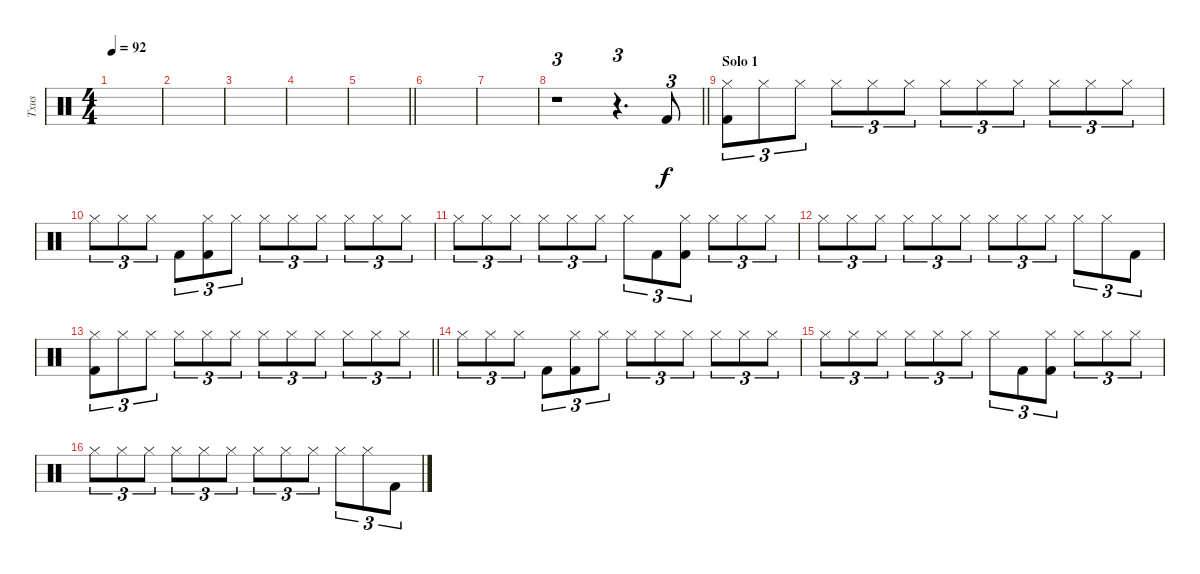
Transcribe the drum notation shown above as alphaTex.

\track ("Txus" "Txus") {instrument percussion}
\staff {score}
\articulation defaults
\ts (4 4)
\tempo 92
\clef neutral
\ks c
|
|
|
|
\barLineRight lightlight
|
|
|
\barLineRight lightlight
r.1{tu (3 2)} r.4{d tu (3 2)} "Kick (hit) 2".8{tu (3 2)} |
\section ("" "Solo 1")
("Hi-Hat (closed)" "Kick (hit) 2").8{tu (3 2)} "Hi-Hat (closed)".8{tu (3 2)} "Hi-Hat (closed)".8{tu (3 2)} "Hi-Hat (closed)".8{tu (3 2)} "Hi-Hat (closed)".8{tu (3 2)} "Hi-Hat (closed)".8{tu (3 2)} "Hi-Hat (closed)".8{tu (3 2)} "Hi-Hat (closed)".8{tu (3 2)} "Hi-Hat (closed)".8{tu (3 2)} "Hi-Hat (closed)".8{tu (3 2)} "Hi-Hat (closed)".8{tu (3 2)} "Hi-Hat (closed)".8{tu (3 2)} |
"Hi-Hat (closed)".8{tu (3 2)} "Hi-Hat (closed)".8{tu (3 2)} "Hi-Hat (closed)".8{tu (3 2)} "Kick (hit) 2".8{tu (3 2)} ("Hi-Hat (closed)" "Kick (hit) 2").8{tu (3 2)} "Hi-Hat (closed)".8{tu (3 2)} "Hi-Hat (closed)".8{tu (3 2)} "Hi-Hat (closed)".8{tu (3 2)} "Hi-Hat (closed)".8{tu (3 2)} "Hi-Hat (closed)".8{tu (3 2)} "Hi-Hat (closed)".8{tu (3 2)} "Hi-Hat (closed)".8{tu (3 2)} |
"Hi-Hat (closed)".8{tu (3 2)} "Hi-Hat (closed)".8{tu (3 2)} "Hi-Hat (closed)".8{tu (3 2)} "Hi-Hat (closed)".8{tu (3 2)} "Hi-Hat (closed)".8{tu (3 2)} "Hi-Hat (closed)".8{tu (3 2)} "Hi-Hat (closed)".8{tu (3 2)} "Kick (hit) 2".8{tu (3 2)} ("Hi-Hat (closed)" "Kick (hit) 2").8{tu (3 2)} "Hi-Hat (closed)".8{tu (3 2)} "Hi-Hat (closed)".8{tu (3 2)} "Hi-Hat (closed)".8{tu (3 2)} |
"Hi-Hat (closed)".8{tu (3 2)} "Hi-Hat (closed)".8{tu (3 2)} "Hi-Hat (closed)".8{tu (3 2)} "Hi-Hat (closed)".8{tu (3 2)} "Hi-Hat (closed)".8{tu (3 2)} "Hi-Hat (closed)".8{tu (3 2)} "Hi-Hat (closed)".8{tu (3 2)} "Hi-Hat (closed)".8{tu (3 2)} "Hi-Hat (closed)".8{tu (3 2)} "Hi-Hat (closed)".8{tu (3 2)} "Hi-Hat (closed)".8{tu (3 2)} "Kick (hit) 2".8{tu (3 2)} |
\barLineRight lightlight
("Hi-Hat (closed)" "Kick (hit) 2").8{tu (3 2)} "Hi-Hat (closed)".8{tu (3 2)} "Hi-Hat (closed)".8{tu (3 2)} "Hi-Hat (closed)".8{tu (3 2)} "Hi-Hat (closed)".8{tu (3 2)} "Hi-Hat (closed)".8{tu (3 2)} "Hi-Hat (closed)".8{tu (3 2)} "Hi-Hat (closed)".8{tu (3 2)} "Hi-Hat (closed)".8{tu (3 2)} "Hi-Hat (closed)".8{tu (3 2)} "Hi-Hat (closed)".8{tu (3 2)} "Hi-Hat (closed)".8{tu (3 2)} |
"Hi-Hat (closed)".8{tu (3 2)} "Hi-Hat (closed)".8{tu (3 2)} "Hi-Hat (closed)".8{tu (3 2)} "Kick (hit) 2".8{tu (3 2)} ("Hi-Hat (closed)" "Kick (hit) 2").8{tu (3 2)} "Hi-Hat (closed)".8{tu (3 2)} "Hi-Hat (closed)".8{tu (3 2)} "Hi-Hat (closed)".8{tu (3 2)} "Hi-Hat (closed)".8{tu (3 2)} "Hi-Hat (closed)".8{tu (3 2)} "Hi-Hat (closed)".8{tu (3 2)} "Hi-Hat (closed)".8{tu (3 2)} |
"Hi-Hat (closed)".8{tu (3 2)} "Hi-Hat (closed)".8{tu (3 2)} "Hi-Hat (closed)".8{tu (3 2)} "Hi-Hat (closed)".8{tu (3 2)} "Hi-Hat (closed)".8{tu (3 2)} "Hi-Hat (closed)".8{tu (3 2)} "Hi-Hat (closed)".8{tu (3 2)} "Kick (hit) 2".8{tu (3 2)} ("Hi-Hat (closed)" "Kick (hit) 2").8{tu (3 2)} "Hi-Hat (closed)".8{tu (3 2)} "Hi-Hat (closed)".8{tu (3 2)} "Hi-Hat (closed)".8{tu (3 2)} |
"Hi-Hat (closed)".8{tu (3 2)} "Hi-Hat (closed)".8{tu (3 2)} "Hi-Hat (closed)".8{tu (3 2)} "Hi-Hat (closed)".8{tu (3 2)} "Hi-Hat (closed)".8{tu (3 2)} "Hi-Hat (closed)".8{tu (3 2)} "Hi-Hat (closed)".8{tu (3 2)} "Hi-Hat (closed)".8{tu (3 2)} "Hi-Hat (closed)".8{tu (3 2)} "Hi-Hat (closed)".8{tu (3 2)} "Hi-Hat (closed)".8{tu (3 2)} "Kick (hit) 2".8{tu (3 2)}
